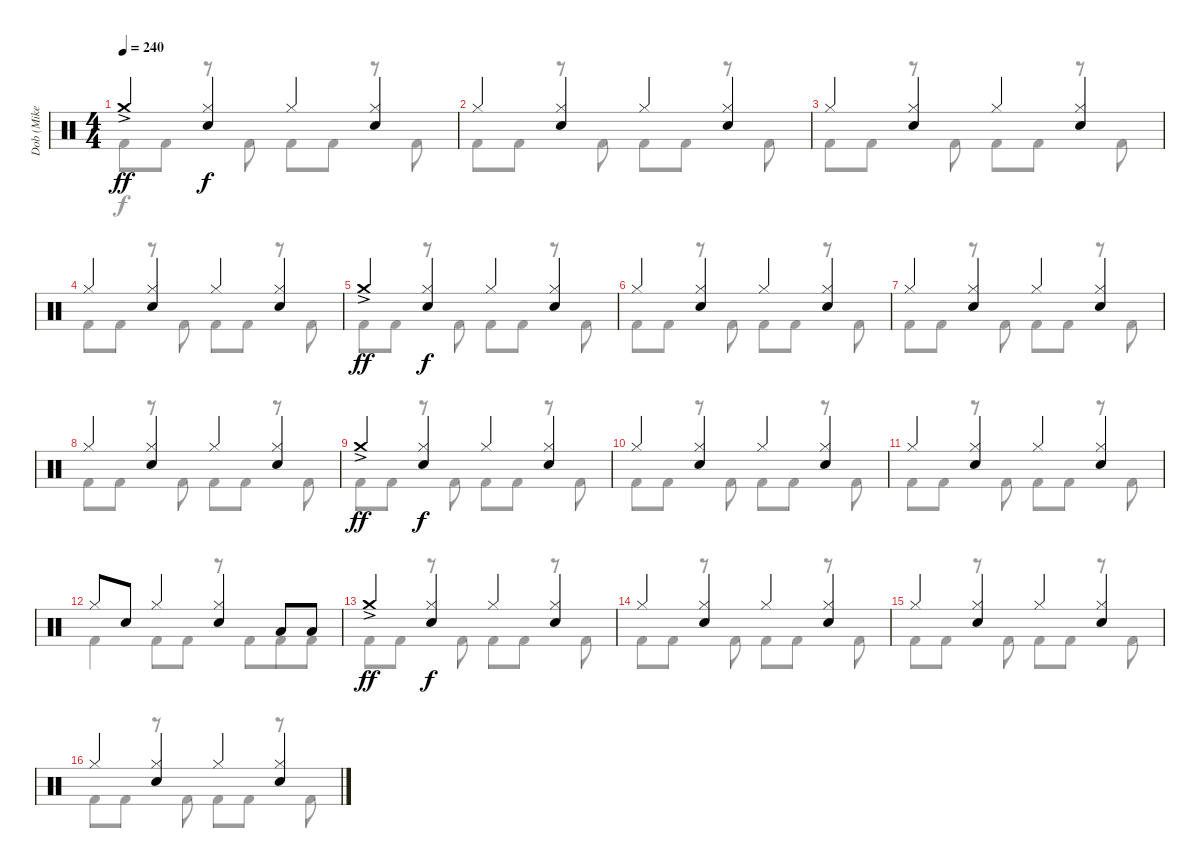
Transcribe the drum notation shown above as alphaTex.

\track ("Dob (Mike Terrana)" "Dob (Mike ") {instrument percussion}
\staff {score}
\articulation defaults
\voice
\ts (4 4)
\tempo 240
\clef neutral
\ks c "Crash medium (hit)"{ac}.4{dy ff}
("Hi-Hat (closed)" "Electric Snare (hit)").4{dy f} "Hi-Hat (closed)".4 ("Hi-Hat (closed)" "Electric Snare (hit)").4 |
"Hi-Hat (closed)".4 ("Hi-Hat (closed)" "Electric Snare (hit)").4 "Hi-Hat (closed)".4 ("Hi-Hat (closed)" "Electric Snare (hit)").4 |
"Hi-Hat (closed)".4 ("Hi-Hat (closed)" "Electric Snare (hit)").4 "Hi-Hat (closed)".4 ("Hi-Hat (closed)" "Electric Snare (hit)").4 |
"Hi-Hat (closed)".4 ("Hi-Hat (closed)" "Electric Snare (hit)").4 "Hi-Hat (closed)".4 ("Hi-Hat (closed)" "Electric Snare (hit)").4 |
"Crash medium (hit)"{ac}.4{dy ff} ("Hi-Hat (closed)" "Electric Snare (hit)").4{dy f} "Hi-Hat (closed)".4 ("Hi-Hat (closed)" "Electric Snare (hit)").4 |
"Hi-Hat (closed)".4 ("Hi-Hat (closed)" "Electric Snare (hit)").4 "Hi-Hat (closed)".4 ("Hi-Hat (closed)" "Electric Snare (hit)").4 |
"Hi-Hat (closed)".4 ("Hi-Hat (closed)" "Electric Snare (hit)").4 "Hi-Hat (closed)".4 ("Hi-Hat (closed)" "Electric Snare (hit)").4 |
"Hi-Hat (closed)".4 ("Hi-Hat (closed)" "Electric Snare (hit)").4 "Hi-Hat (closed)".4 ("Hi-Hat (closed)" "Electric Snare (hit)").4 |
"Crash medium (hit)"{ac}.4{dy ff} ("Hi-Hat (closed)" "Electric Snare (hit)").4{dy f} "Hi-Hat (closed)".4 ("Hi-Hat (closed)" "Electric Snare (hit)").4 |
"Hi-Hat (closed)".4 ("Hi-Hat (closed)" "Electric Snare (hit)").4 "Hi-Hat (closed)".4 ("Hi-Hat (closed)" "Electric Snare (hit)").4 |
"Hi-Hat (closed)".4 ("Hi-Hat (closed)" "Electric Snare (hit)").4 "Hi-Hat (closed)".4 ("Hi-Hat (closed)" "Electric Snare (hit)").4 |
"Hi-Hat (closed)".8 "Electric Snare (hit)".8 "Hi-Hat (closed)".4 ("Hi-Hat (closed)" "Electric Snare (hit)").4 "Low Tom (hit)".8 "Low Tom (hit)".8 |
"Crash medium (hit)"{ac}.4{dy ff} ("Hi-Hat (closed)" "Electric Snare (hit)").4{dy f} "Hi-Hat (closed)".4 ("Hi-Hat (closed)" "Electric Snare (hit)").4 |
"Hi-Hat (closed)".4 ("Hi-Hat (closed)" "Electric Snare (hit)").4 "Hi-Hat (closed)".4 ("Hi-Hat (closed)" "Electric Snare (hit)").4 |
"Hi-Hat (closed)".4 ("Hi-Hat (closed)" "Electric Snare (hit)").4 "Hi-Hat (closed)".4 ("Hi-Hat (closed)" "Electric Snare (hit)").4 |
"Hi-Hat (closed)".4 ("Hi-Hat (closed)" "Electric Snare (hit)").4 "Hi-Hat (closed)".4 ("Hi-Hat (closed)" "Electric Snare (hit)").4
\voice
\clef neutral
\ottava regular
\simile none
\ks c "Kick (hit) 2".8{dy f} "Kick (hit) 2".8
r.8 "Kick (hit) 2".8 "Kick (hit) 2".8 "Kick (hit) 2".8 r.8 "Kick (hit) 2".8 |
"Kick (hit) 2".8 "Kick (hit) 2".8 r.8 "Kick (hit) 2".8 "Kick (hit) 2".8 "Kick (hit) 2".8 r.8 "Kick (hit) 2".8 |
"Kick (hit) 2".8 "Kick (hit) 2".8 r.8 "Kick (hit) 2".8 "Kick (hit) 2".8 "Kick (hit) 2".8 r.8 "Kick (hit) 2".8 |
"Kick (hit) 2".8 "Kick (hit) 2".8 r.8 "Kick (hit) 2".8 "Kick (hit) 2".8 "Kick (hit) 2".8 r.8 "Kick (hit) 2".8 |
"Kick (hit) 2".8 "Kick (hit) 2".8 r.8 "Kick (hit) 2".8 "Kick (hit) 2".8 "Kick (hit) 2".8 r.8 "Kick (hit) 2".8 |
"Kick (hit) 2".8 "Kick (hit) 2".8 r.8 "Kick (hit) 2".8 "Kick (hit) 2".8 "Kick (hit) 2".8 r.8 "Kick (hit) 2".8 |
"Kick (hit) 2".8 "Kick (hit) 2".8 r.8 "Kick (hit) 2".8 "Kick (hit) 2".8 "Kick (hit) 2".8 r.8 "Kick (hit) 2".8 |
"Kick (hit) 2".8 "Kick (hit) 2".8 r.8 "Kick (hit) 2".8 "Kick (hit) 2".8 "Kick (hit) 2".8 r.8 "Kick (hit) 2".8 |
"Kick (hit) 2".8 "Kick (hit) 2".8 r.8 "Kick (hit) 2".8 "Kick (hit) 2".8 "Kick (hit) 2".8 r.8 "Kick (hit) 2".8 |
"Kick (hit) 2".8 "Kick (hit) 2".8 r.8 "Kick (hit) 2".8 "Kick (hit) 2".8 "Kick (hit) 2".8 r.8 "Kick (hit) 2".8 |
"Kick (hit) 2".8 "Kick (hit) 2".8 r.8 "Kick (hit) 2".8 "Kick (hit) 2".8 "Kick (hit) 2".8 r.8 "Kick (hit) 2".8 |
"Kick (hit) 2".4 "Kick (hit) 2".8 "Kick (hit) 2".8 r.8 "Kick (hit) 2".8{beam merge} "Kick (hit) 2".8 "Kick (hit) 2".8 |
"Kick (hit) 2".8 "Kick (hit) 2".8 r.8 "Kick (hit) 2".8 "Kick (hit) 2".8 "Kick (hit) 2".8 r.8 "Kick (hit) 2".8 |
"Kick (hit) 2".8 "Kick (hit) 2".8 r.8 "Kick (hit) 2".8 "Kick (hit) 2".8 "Kick (hit) 2".8 r.8 "Kick (hit) 2".8 |
"Kick (hit) 2".8 "Kick (hit) 2".8 r.8 "Kick (hit) 2".8 "Kick (hit) 2".8 "Kick (hit) 2".8 r.8 "Kick (hit) 2".8 |
"Kick (hit) 2".8 "Kick (hit) 2".8 r.8 "Kick (hit) 2".8 "Kick (hit) 2".8 "Kick (hit) 2".8 r.8 "Kick (hit) 2".8
